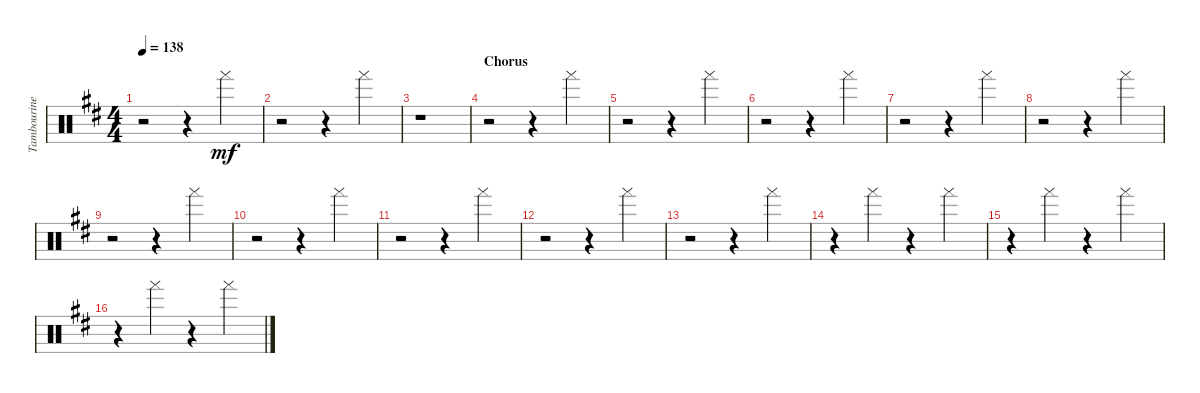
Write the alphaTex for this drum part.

\track ("Tambourine" "Tambourine") {instrument percussion}
\staff {score}
\articulation defaults
\ts (4 4)
\tempo 138
\clef neutral
\ks d
r.2{dy mf} r.4 "Tambourine (hand)".4 |
r.2 r.4 "Tambourine (hand)".4 |
r.1 |
\section ("" "Chorus")
r.2 r.4 "Tambourine (hand)".4 |
r.2 r.4 "Tambourine (hand)".4 |
r.2 r.4 "Tambourine (hand)".4 |
r.2 r.4 "Tambourine (hand)".4 |
r.2 r.4 "Tambourine (hand)".4 |
r.2 r.4 "Tambourine (hand)".4 |
r.2 r.4 "Tambourine (hand)".4 |
r.2 r.4 "Tambourine (hand)".4 |
r.2 r.4 "Tambourine (hand)".4 |
r.2 r.4 "Tambourine (hand)".4 |
r.4 "Tambourine (hand)".4 r.4 "Tambourine (hand)".4 |
r.4 "Tambourine (hand)".4 r.4 "Tambourine (hand)".4 |
r.4 "Tambourine (hand)".4 r.4 "Tambourine (hand)".4
